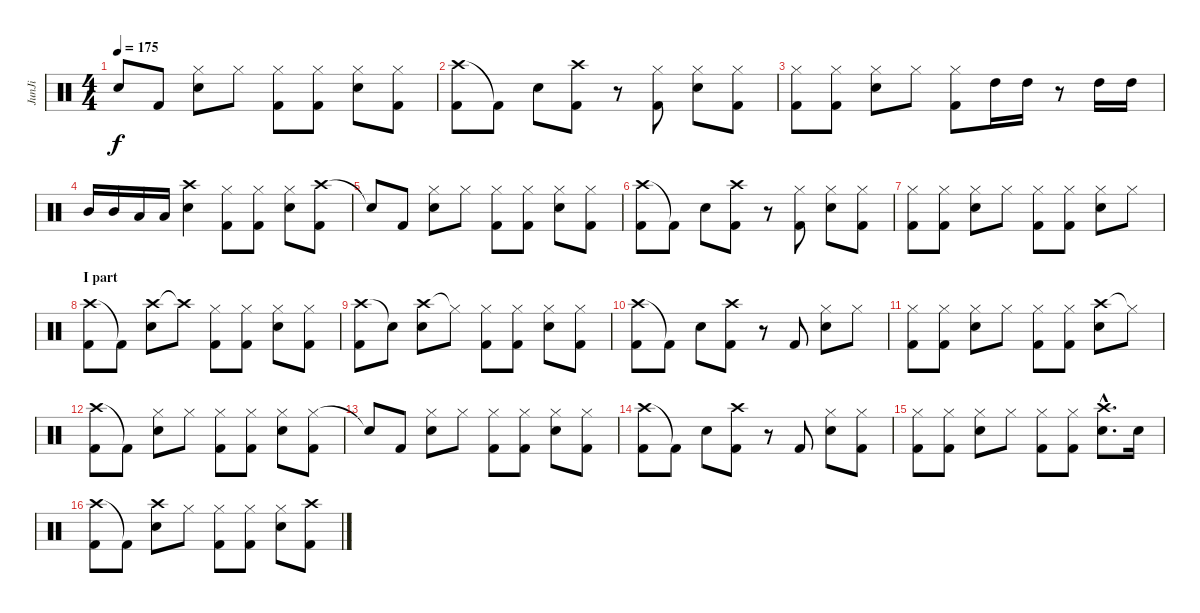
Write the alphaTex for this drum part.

\track ("JunJi" "JunJi") {instrument percussion}
\staff {score}
\articulation defaults
\ts (4 4)
\tempo 175
\clef neutral
\ks c "Snare (hit)"{t}.8{dy f} "Kick (hit) 2".8
("Hi-Hat (closed)" "Snare (hit) 2").8 "Hi-Hat (closed)".8 ("Hi-Hat (closed)" "Kick (hit) 2").8 ("Hi-Hat (closed)" "Kick (hit) 2").8 ("Hi-Hat (closed)" "Snare (hit) 2").8 ("Hi-Hat (closed)" "Kick (hit) 2").8 |
("Crash high (hit)" "Kick (hit) 2").8 "Kick (hit) 2"{t}.8 "Snare (hit) 2".8 ("Crash high (hit)" "Kick (hit) 2").8 r.8 ("Hi-Hat (closed)" "Kick (hit) 2").8 ("Hi-Hat (closed)" "Snare (hit) 2").8 ("Hi-Hat (closed)" "Kick (hit) 2").8 |
("Hi-Hat (closed)" "Kick (hit) 2").8 ("Hi-Hat (closed)" "Kick (hit) 2").8 ("Hi-Hat (closed)" "Snare (hit) 2").8 "Hi-Hat (closed)".8 ("Hi-Hat (closed)" "Kick (hit) 2").8 "High Tom (hit)".16 "High Tom (hit)".16 r.8 "High Tom (hit)".16 "High Tom (hit)".16 |
"Mid Tom (hit)".16 "Mid Tom (hit)".16 "Low Tom (hit)".16 "Low Tom (hit)".16 ("Crash high (hit)" "Snare (hit) 2").4 ("Hi-Hat (closed)" "Kick (hit) 2").8 ("Hi-Hat (closed)" "Kick (hit) 2").8 ("Hi-Hat (closed)" "Snare (hit) 2").8 ("Crash high (hit)" "Kick (hit) 2").8 |
"Snare (hit)"{t}.8 "Kick (hit) 2".8 ("Hi-Hat (closed)" "Snare (hit) 2").8 "Hi-Hat (closed)".8 ("Hi-Hat (closed)" "Kick (hit) 2").8 ("Hi-Hat (closed)" "Kick (hit) 2").8 ("Hi-Hat (closed)" "Snare (hit) 2").8 ("Hi-Hat (closed)" "Kick (hit) 2").8 |
("Crash high (hit)" "Kick (hit) 2").8 "Kick (hit) 2"{t}.8 "Snare (hit) 2".8 ("Crash high (hit)" "Kick (hit) 2").8 r.8 ("Hi-Hat (closed)" "Kick (hit) 2").8 ("Hi-Hat (closed)" "Snare (hit) 2").8 ("Hi-Hat (closed)" "Kick (hit) 2").8 |
("Hi-Hat (closed)" "Kick (hit) 2").8 ("Hi-Hat (closed)" "Kick (hit) 2").8 ("Hi-Hat (closed)" "Snare (hit) 2").8 "Hi-Hat (closed)".8 ("Hi-Hat (closed)" "Kick (hit) 2").8 ("Hi-Hat (closed)" "Kick (hit) 2").8 ("Hi-Hat (closed)" "Snare (hit) 2").8 "Hi-Hat (closed)".8 |
\section ("" "I part")
("Crash high (hit)" "Kick (hit) 2").8 "Kick (hit) 2"{t}.8 ("Crash high (hit)" "Snare (hit) 2").8 "Crash high (hit)"{t}.8 ("Hi-Hat (closed)" "Kick (hit) 2").8 ("Hi-Hat (closed)" "Kick (hit) 2").8 ("Hi-Hat (closed)" "Snare (hit) 2").8 ("Hi-Hat (closed)" "Kick (hit) 2").8 |
("Crash high (hit)" "Kick (hit) 2").8 "Snare (hit)"{t}.8 ("Crash high (hit)" "Snare (hit) 2").8 "Hi-Hat (closed)"{t}.8 ("Hi-Hat (closed)" "Kick (hit) 2").8 ("Hi-Hat (closed)" "Kick (hit) 2").8 ("Hi-Hat (closed)" "Snare (hit) 2").8 ("Hi-Hat (closed)" "Kick (hit) 2").8 |
("Crash high (hit)" "Kick (hit) 2").8 "Kick (hit) 2"{t}.8 "Snare (hit) 2".8 ("Crash high (hit)" "Kick (hit) 2").8 r.8 "Kick (hit) 2".8 ("Hi-Hat (closed)" "Snare (hit) 2").8 "Hi-Hat (closed)".8 |
("Hi-Hat (closed)" "Kick (hit) 2").8 ("Hi-Hat (closed)" "Kick (hit) 2").8 ("Hi-Hat (closed)" "Snare (hit) 2").8 "Hi-Hat (closed)".8 ("Hi-Hat (closed)" "Kick (hit) 2").8 ("Hi-Hat (closed)" "Kick (hit) 2").8 ("Crash high (hit)" "Snare (hit) 2").8 "Hi-Hat (closed)"{t}.8 |
("Crash high (hit)" "Kick (hit) 2").8 "Kick (hit) 2"{t}.8 ("Hi-Hat (closed)" "Snare (hit) 2").8 "Hi-Hat (closed)".8 ("Hi-Hat (closed)" "Kick (hit) 2").8 ("Hi-Hat (closed)" "Kick (hit) 2").8 ("Hi-Hat (closed)" "Snare (hit) 2").8 ("Hi-Hat (closed)" "Kick (hit) 2").8 |
"Snare (hit)"{t}.8 "Kick (hit) 2".8 ("Hi-Hat (closed)" "Snare (hit) 2").8 "Hi-Hat (closed)".8 ("Hi-Hat (closed)" "Kick (hit) 2").8 ("Hi-Hat (closed)" "Kick (hit) 2").8 ("Hi-Hat (closed)" "Snare (hit) 2").8 ("Hi-Hat (closed)" "Kick (hit) 2").8 |
("Crash high (hit)" "Kick (hit) 2").8 "Kick (hit) 2"{t}.8 "Snare (hit) 2".8 ("Crash high (hit)" "Kick (hit) 2").8 r.8 "Kick (hit) 2".8 ("Hi-Hat (closed)" "Snare (hit) 2").8 ("Hi-Hat (closed)" "Kick (hit) 2").8 |
("Hi-Hat (closed)" "Kick (hit) 2").8 ("Hi-Hat (closed)" "Kick (hit) 2").8 ("Hi-Hat (closed)" "Snare (hit) 2").8 "Hi-Hat (closed)".8 ("Hi-Hat (closed)" "Kick (hit) 2").8 ("Hi-Hat (closed)" "Kick (hit) 2").8 ("Crash high (hit)"{hac} "Snare (hit) 2"{hac}).8{d} "Snare (hit) 2".16 |
("Crash high (hit)" "Kick (hit) 2").8 "Kick (hit) 2"{t}.8 ("Crash high (hit)" "Snare (hit) 2").8 "Hi-Hat (closed)".8 ("Hi-Hat (closed)" "Kick (hit) 2").8 ("Hi-Hat (closed)" "Kick (hit) 2").8 ("Hi-Hat (closed)" "Snare (hit) 2").8 ("Crash high (hit)" "Kick (hit) 2").8
